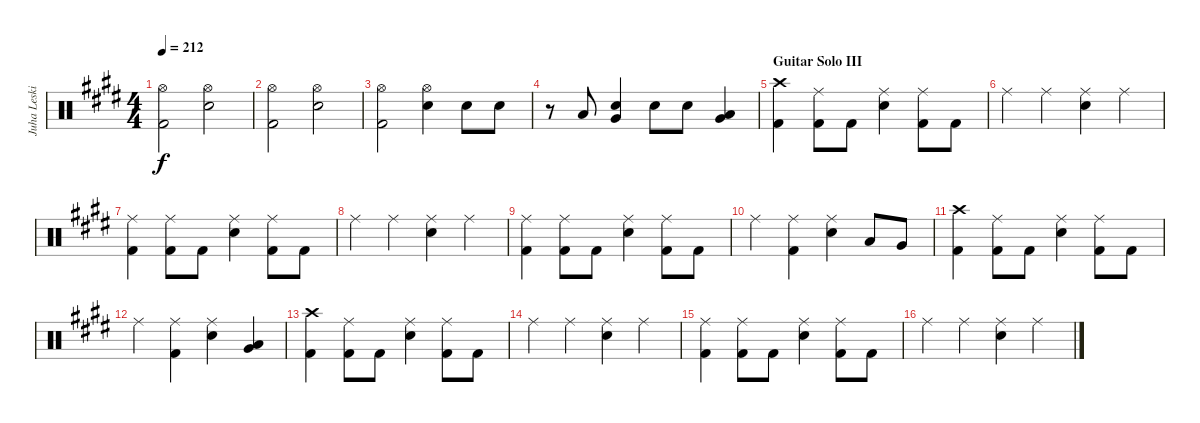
\track ("Juha Leskinen - Drums" "Juha Leski") {instrument percussion}
\staff {score}
\articulation defaults
\ts (4 4)
\tempo 212
\clef neutral
\ks c#minor
("Hi-Hat (open)" "Kick (hit) 2").2{dy f} ("Hi-Hat (open)" "Electric Snare (hit)").2 |
("Hi-Hat (open)" "Kick (hit) 2").2 ("Hi-Hat (open)" "Electric Snare (hit)").2 |
("Hi-Hat (open)" "Kick (hit) 2").2 ("Hi-Hat (open)" "Electric Snare (hit)").4 "Electric Snare (hit)".8 "Electric Snare (hit)".8 |
r.8 "Low Tom (hit)".8 ("Very Low Tom (hit)" "Electric Snare (hit)").4 "Electric Snare (hit)".8 "Electric Snare (hit)".8 ("Low Tom (hit)" "Very Low Tom (hit)").4 |
\section ("" "Guitar Solo III")
("Crash high (hit)" "Kick (hit) 2").4 ("Ride (middle)" "Kick (hit) 2").8 "Kick (hit) 2".8 ("Ride (middle)" "Electric Snare (hit)").4 ("Ride (middle)" "Kick (hit) 2").8 "Kick (hit) 2".8 |
"Ride (middle)".4 "Ride (middle)".4 ("Ride (middle)" "Electric Snare (hit)").4 "Ride (middle)".4 |
("Ride (middle)" "Kick (hit) 2").4 ("Ride (middle)" "Kick (hit) 2").8 "Kick (hit) 2".8 ("Ride (middle)" "Electric Snare (hit)").4 ("Ride (middle)" "Kick (hit) 2").8 "Kick (hit) 2".8 |
"Ride (middle)".4 "Ride (middle)".4 ("Ride (middle)" "Electric Snare (hit)").4 "Ride (middle)".4 |
("Ride (middle)" "Kick (hit) 2").4 ("Ride (middle)" "Kick (hit) 2").8 "Kick (hit) 2".8 ("Ride (middle)" "Electric Snare (hit)").4 ("Ride (middle)" "Kick (hit) 2").8 "Kick (hit) 2".8 |
"Ride (middle)".4 ("Ride (middle)" "Kick (hit) 2").4 ("Ride (middle)" "Electric Snare (hit)").4 "Low Tom (hit)".8 "Very Low Tom (hit)".8 |
("Crash high (hit)" "Kick (hit) 2").4 ("Ride (middle)" "Kick (hit) 2").8 "Kick (hit) 2".8 ("Ride (middle)" "Electric Snare (hit)").4 ("Ride (middle)" "Kick (hit) 2").8 "Kick (hit) 2".8 |
"Ride (middle)".4 ("Ride (middle)" "Kick (hit) 2").4 ("Ride (middle)" "Electric Snare (hit)").4 ("Low Tom (hit)" "Very Low Tom (hit)").4 |
("Crash high (hit)" "Kick (hit) 2").4 ("Ride (middle)" "Kick (hit) 2").8 "Kick (hit) 2".8 ("Ride (middle)" "Electric Snare (hit)").4 ("Ride (middle)" "Kick (hit) 2").8 "Kick (hit) 2".8 |
"Ride (middle)".4 "Ride (middle)".4 ("Ride (middle)" "Electric Snare (hit)").4 "Ride (middle)".4 |
("Ride (middle)" "Kick (hit) 2").4 ("Ride (middle)" "Kick (hit) 2").8 "Kick (hit) 2".8 ("Ride (middle)" "Electric Snare (hit)").4 ("Ride (middle)" "Kick (hit) 2").8 "Kick (hit) 2".8 |
"Ride (middle)".4 "Ride (middle)".4 ("Ride (middle)" "Electric Snare (hit)").4 "Ride (middle)".4
